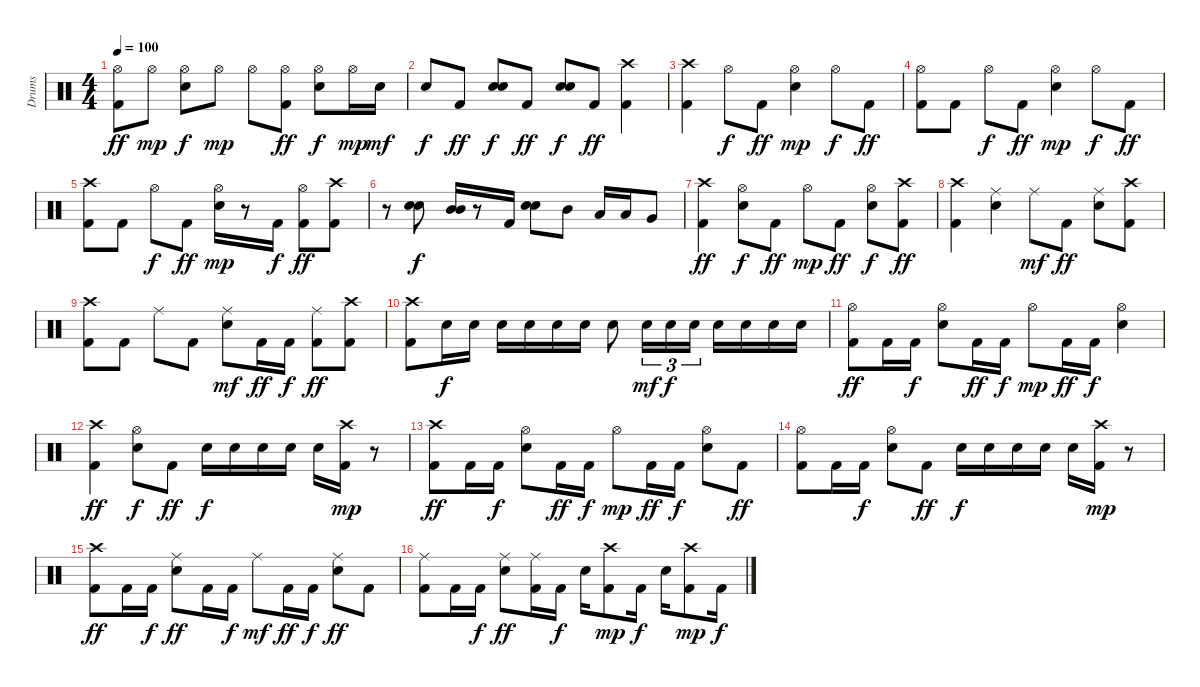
\track ("Drums" "Drums") {instrument percussion}
\staff {score}
\articulation defaults
\ts (4 4)
\tempo 100
\clef neutral
\ks c
("Hi-Hat (open)" "Kick (hit) 2").8{dy ff} "Hi-Hat (open)".8{dy mp} ("Hi-Hat (open)" "Electric Snare (hit)").8{dy f} "Hi-Hat (open)".8{dy mp} "Hi-Hat (open)".8 ("Hi-Hat (open)" "Kick (hit) 2").8{dy ff} ("Hi-Hat (open)" "Electric Snare (hit)").8{dy f} "Hi-Hat (open)".16{dy mp} "Electric Snare (hit)".16{dy mf} |
"Electric Snare (hit)".8{dy f} "Kick (hit) 2".8{dy ff} ("Electric Snare (hit)" "Electric Snare (hit)").8{dy f} "Kick (hit) 2".8{dy ff} ("Electric Snare (hit)" "Electric Snare (hit)").8{dy f} "Kick (hit) 2".8{dy ff} ("Crash high (hit)" "Kick (hit) 2").4 |
("Crash high (hit)" "Kick (hit) 2").4 "Hi-Hat (open)".8{dy f} "Kick (hit) 2".8{dy ff} ("Hi-Hat (open)" "Electric Snare (hit)").4{dy mp} "Hi-Hat (open)".8{dy f} "Kick (hit) 2".8{dy ff} |
("Hi-Hat (open)" "Kick (hit) 2").8 "Kick (hit) 2".8 "Hi-Hat (open)".8{dy f} "Kick (hit) 2".8{dy ff} ("Hi-Hat (open)" "Electric Snare (hit)").4{dy mp} "Hi-Hat (open)".8{dy f} "Kick (hit) 2".8{dy ff} |
("Crash high (hit)" "Kick (hit) 2").8 "Kick (hit) 2".8 "Hi-Hat (open)".8{dy f} "Kick (hit) 2".8{dy ff} ("Hi-Hat (open)" "Electric Snare (hit)").16{dy mp} r.8 "Kick (hit) 2".16{dy f} ("Hi-Hat (open)" "Kick (hit) 2").8{dy ff} ("Crash high (hit)" "Kick (hit) 2").8 |
r.8 ("Electric Snare (hit)" "Electric Snare (hit)").8{dy f} ("Mid Tom (hit)" "Mid Tom (hit)").16 r.8 "Kick (hit) 2".16 ("Electric Snare (hit)" "Electric Snare (hit)").8 "Mid Tom (hit)".8 "Low Tom (hit)".16 "Low Tom (hit)".16 "Very Low Tom (hit)".8 |
("Crash high (hit)" "Kick (hit) 2").4{dy ff} ("Hi-Hat (open)" "Electric Snare (hit)").8{dy f} "Kick (hit) 2".8{dy ff} "Hi-Hat (open)".8{dy mp} "Kick (hit) 2".8{dy ff} ("Hi-Hat (open)" "Electric Snare (hit)").8{dy f} ("Crash high (hit)" "Kick (hit) 2").8{dy ff} |
("Crash high (hit)" "Kick (hit) 2").4 ("Ride (middle)" "Electric Snare (hit)").4 "Ride (middle)".8{dy mf} "Kick (hit) 2".8{dy ff} ("Ride (middle)" "Electric Snare (hit)").8 ("Crash high (hit)" "Kick (hit) 2").8 |
("Crash high (hit)" "Kick (hit) 2").8 "Kick (hit) 2".8 "Ride (middle)".8 "Kick (hit) 2".8 ("Ride (middle)" "Electric Snare (hit)").8{dy mf} "Kick (hit) 2".16{dy ff} "Kick (hit) 2".16{dy f} ("Ride (middle)" "Kick (hit) 2").8{dy ff} ("Crash high (hit)" "Kick (hit) 2").8 |
("Crash high (hit)" "Kick (hit) 2").8 "Electric Snare (hit)".16{dy f} "Electric Snare (hit)".16 "Electric Snare (hit)".16 "Electric Snare (hit)".16 "Electric Snare (hit)".16 "Electric Snare (hit)".16 "Electric Snare (hit)".8 "Electric Snare (hit)".16{tu (3 2) dy mf} "Electric Snare (hit)".16{tu (3 2) dy f} "Electric Snare (hit)".16{tu (3 2)} "Electric Snare (hit)".16 "Electric Snare (hit)".16 "Electric Snare (hit)".16 "Electric Snare (hit)".16 |
("Hi-Hat (open)" "Kick (hit) 2").8{dy ff} "Kick (hit) 2".16 "Kick (hit) 2".16{dy f} ("Hi-Hat (open)" "Electric Snare (hit)").8 "Kick (hit) 2".16{dy ff} "Kick (hit) 2".16{dy f} "Hi-Hat (open)".8{dy mp} "Kick (hit) 2".16{dy ff} "Kick (hit) 2".16{dy f} ("Hi-Hat (open)" "Electric Snare (hit)").4 |
("Crash high (hit)" "Kick (hit) 2").4{dy ff} ("Hi-Hat (open)" "Electric Snare (hit)").8{dy f} "Kick (hit) 2".8{dy ff} "Electric Snare (hit)".16{dy f} "Electric Snare (hit)".16 "Electric Snare (hit)".16 "Electric Snare (hit)".16 "Electric Snare (hit)".16 ("Crash high (hit)" "Kick (hit) 2").16{dy mp} r.8 |
("Crash high (hit)" "Kick (hit) 2").8{dy ff} "Kick (hit) 2".16 "Kick (hit) 2".16{dy f} ("Hi-Hat (open)" "Electric Snare (hit)").8 "Kick (hit) 2".16{dy ff} "Kick (hit) 2".16{dy f} "Hi-Hat (open)".8{dy mp} "Kick (hit) 2".16{dy ff} "Kick (hit) 2".16{dy f} ("Hi-Hat (open)" "Electric Snare (hit)").8 "Kick (hit) 2".8{dy ff} |
("Hi-Hat (open)" "Kick (hit) 2").8 "Kick (hit) 2".16 "Kick (hit) 2".16{dy f} ("Hi-Hat (open)" "Electric Snare (hit)").8 "Kick (hit) 2".8{dy ff} "Electric Snare (hit)".16{dy f} "Electric Snare (hit)".16 "Electric Snare (hit)".16 "Electric Snare (hit)".16 "Electric Snare (hit)".16 ("Crash high (hit)" "Kick (hit) 2").16{dy mp} r.8 |
("Crash high (hit)" "Kick (hit) 2").8{dy ff} "Kick (hit) 2".16 "Kick (hit) 2".16{dy f} ("Ride (middle)" "Electric Snare (hit)").8{dy ff} "Kick (hit) 2".16 "Kick (hit) 2".16{dy f} "Ride (middle)".8{dy mf} "Kick (hit) 2".16{dy ff} "Kick (hit) 2".16{dy f} ("Ride (middle)" "Electric Snare (hit)").8{dy ff} "Kick (hit) 2".8 |
("Ride (middle)" "Kick (hit) 2").8 "Kick (hit) 2".16 "Kick (hit) 2".16{dy f} ("Ride (middle)" "Electric Snare (hit)").8{dy ff} ("Ride (middle)" "Kick (hit) 2").16 "Kick (hit) 2".16{dy f} "Electric Snare (hit)".16 ("Crash high (hit)" "Kick (hit) 2").8{dy mp} "Kick (hit) 2".16{dy f} "Electric Snare (hit)".16 ("Crash high (hit)" "Kick (hit) 2").8{dy mp} "Kick (hit) 2".16{dy f}
